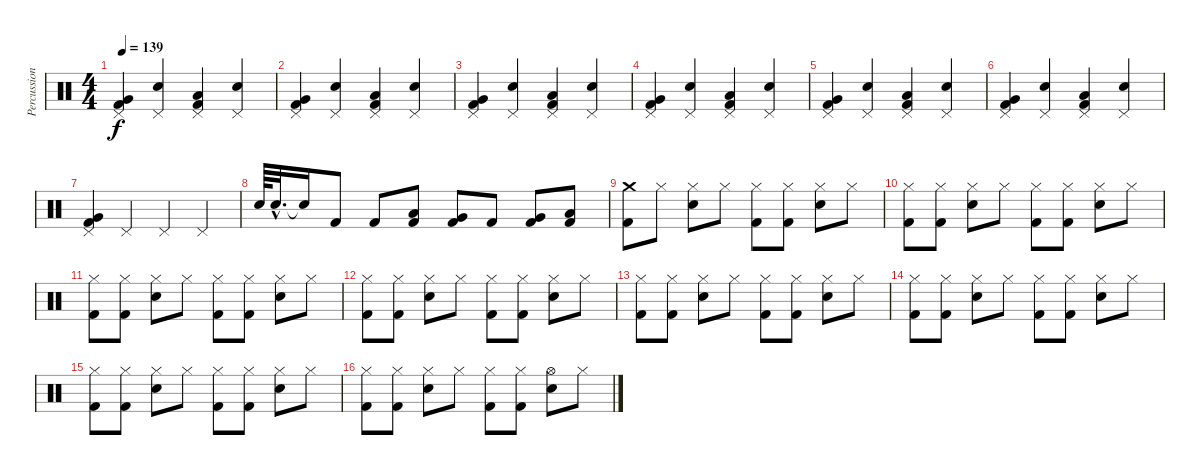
\track ("Percussion" "Percussion") {instrument percussion}
\staff {score}
\articulation defaults
\ts (4 4)
\tempo 139
\clef neutral
\ks c
("Pedal Hi-Hat (hit)" "Very Low Tom (hit)" "Kick (hit) 2").4{dy f} ("Pedal Hi-Hat (hit)" "Metronome (bell)").4 ("Pedal Hi-Hat (hit)" "Low Floor Tom (hit)" "Kick (hit) 2").4 ("Pedal Hi-Hat (hit)" "Metronome (bell)").4 |
("Pedal Hi-Hat (hit)" "Very Low Tom (hit)" "Kick (hit) 2").4 ("Pedal Hi-Hat (hit)" "Metronome (bell)").4 ("Pedal Hi-Hat (hit)" "Low Floor Tom (hit)" "Kick (hit) 2").4 ("Pedal Hi-Hat (hit)" "Metronome (bell)").4 |
("Pedal Hi-Hat (hit)" "Very Low Tom (hit)" "Kick (hit) 2").4 ("Pedal Hi-Hat (hit)" "Metronome (bell)").4 ("Pedal Hi-Hat (hit)" "Low Floor Tom (hit)" "Kick (hit) 2").4 ("Pedal Hi-Hat (hit)" "Metronome (bell)").4 |
("Pedal Hi-Hat (hit)" "Very Low Tom (hit)" "Kick (hit) 2").4 ("Pedal Hi-Hat (hit)" "Metronome (bell)").4 ("Pedal Hi-Hat (hit)" "Low Floor Tom (hit)" "Kick (hit) 2").4 ("Pedal Hi-Hat (hit)" "Metronome (bell)").4 |
("Pedal Hi-Hat (hit)" "Very Low Tom (hit)" "Kick (hit) 2").4 ("Pedal Hi-Hat (hit)" "Metronome (bell)").4 ("Pedal Hi-Hat (hit)" "Low Floor Tom (hit)" "Kick (hit) 2").4 ("Pedal Hi-Hat (hit)" "Metronome (bell)").4 |
("Pedal Hi-Hat (hit)" "Very Low Tom (hit)" "Kick (hit) 2").4 ("Pedal Hi-Hat (hit)" "Metronome (bell)").4 ("Pedal Hi-Hat (hit)" "Low Floor Tom (hit)" "Kick (hit) 2").4 ("Pedal Hi-Hat (hit)" "Metronome (bell)").4 |
("Pedal Hi-Hat (hit)" "Very Low Tom (hit)" "Kick (hit) 2").4 "Pedal Hi-Hat (hit)".4 "Pedal Hi-Hat (hit)".4 "Pedal Hi-Hat (hit)".4 |
"Metronome (bell)".64 "Metronome (bell)"{hac}.32{d} "Snare (hit)"{t}.16 "Kick (hit) 2".8 "Kick (hit) 2".8 ("Low Tom (hit)" "Kick (hit) 2").8 ("Very Low Tom (hit)" "Kick (hit) 2").8 "Kick (hit) 2".8 ("Very Low Tom (hit)" "Kick (hit) 2").8 ("Low Floor Tom (hit)" "Kick (hit) 2").8 |
("Crash medium (hit)" "Kick (hit) 2").8 "Hi-Hat (closed)".8 ("Hi-Hat (closed)" "Metronome (bell)").8 "Hi-Hat (closed)".8 ("Hi-Hat (closed)" "Kick (hit) 2").8 ("Hi-Hat (closed)" "Kick (hit) 2").8 ("Hi-Hat (closed)" "Metronome (bell)").8 "Hi-Hat (closed)".8 |
("Hi-Hat (closed)" "Kick (hit) 2").8 ("Hi-Hat (closed)" "Kick (hit) 2").8 ("Hi-Hat (closed)" "Metronome (bell)").8 "Hi-Hat (closed)".8 ("Hi-Hat (closed)" "Kick (hit) 2").8 ("Hi-Hat (closed)" "Kick (hit) 2").8 ("Hi-Hat (closed)" "Metronome (bell)").8 "Hi-Hat (closed)".8 |
("Hi-Hat (closed)" "Kick (hit) 2").8 ("Hi-Hat (closed)" "Kick (hit) 2").8 ("Hi-Hat (closed)" "Metronome (bell)").8 "Hi-Hat (closed)".8 ("Hi-Hat (closed)" "Kick (hit) 2").8 ("Hi-Hat (closed)" "Kick (hit) 2").8 ("Hi-Hat (closed)" "Metronome (bell)").8 "Hi-Hat (closed)".8 |
("Hi-Hat (closed)" "Kick (hit) 2").8 ("Hi-Hat (closed)" "Kick (hit) 2").8 ("Hi-Hat (closed)" "Metronome (bell)").8 "Hi-Hat (closed)".8 ("Hi-Hat (closed)" "Kick (hit) 2").8 ("Hi-Hat (closed)" "Kick (hit) 2").8 ("Hi-Hat (closed)" "Metronome (bell)").8 "Hi-Hat (closed)".8 |
("Hi-Hat (closed)" "Kick (hit) 2").8 ("Hi-Hat (closed)" "Kick (hit) 2").8 ("Hi-Hat (closed)" "Metronome (bell)").8 "Hi-Hat (closed)".8 ("Hi-Hat (closed)" "Kick (hit) 2").8 ("Hi-Hat (closed)" "Kick (hit) 2").8 ("Hi-Hat (closed)" "Metronome (bell)").8 "Hi-Hat (closed)".8 |
("Hi-Hat (closed)" "Kick (hit) 2").8 ("Hi-Hat (closed)" "Kick (hit) 2").8 ("Hi-Hat (closed)" "Metronome (bell)").8 "Hi-Hat (closed)".8 ("Hi-Hat (closed)" "Kick (hit) 2").8 ("Hi-Hat (closed)" "Kick (hit) 2").8 ("Hi-Hat (closed)" "Metronome (bell)").8 "Hi-Hat (closed)".8 |
("Hi-Hat (closed)" "Kick (hit) 2").8 ("Hi-Hat (closed)" "Kick (hit) 2").8 ("Hi-Hat (closed)" "Metronome (bell)").8 "Hi-Hat (closed)".8 ("Hi-Hat (closed)" "Kick (hit) 2").8 ("Hi-Hat (closed)" "Kick (hit) 2").8 ("Hi-Hat (closed)" "Metronome (bell)").8 "Hi-Hat (closed)".8 |
("Hi-Hat (closed)" "Kick (hit) 2").8 ("Hi-Hat (closed)" "Kick (hit) 2").8 ("Hi-Hat (closed)" "Metronome (bell)").8 "Hi-Hat (closed)".8 ("Hi-Hat (closed)" "Kick (hit) 2").8 ("Hi-Hat (closed)" "Kick (hit) 2").8 ("Hi-Hat (open)" "Metronome (bell)").8 "Hi-Hat (closed)".8
